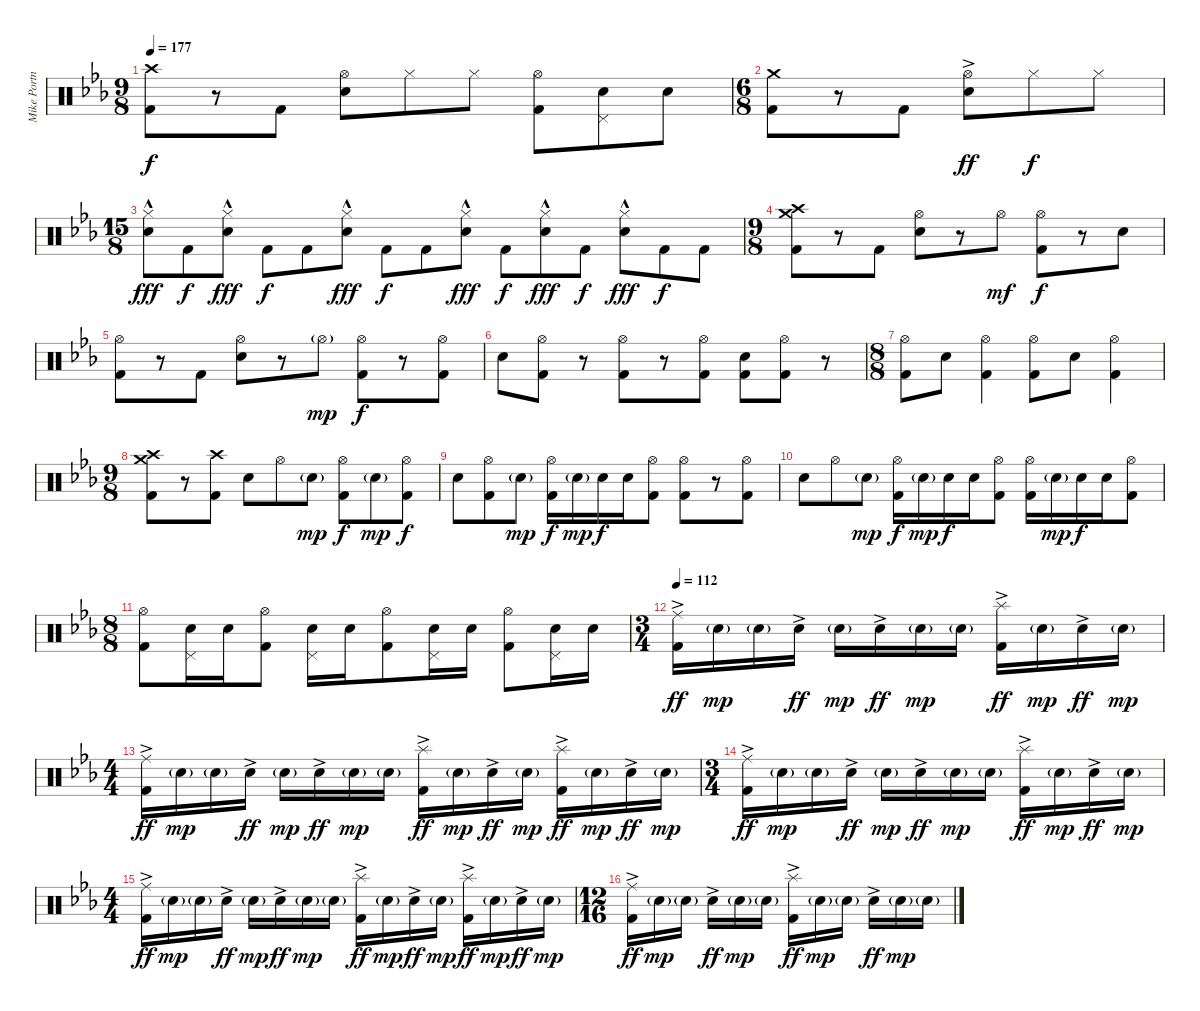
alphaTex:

\track ("Mike Portnoy" "Mike Portn") {instrument percussion}
\staff {score}
\articulation defaults
\ts (9 8)
\tempo 177
\clef neutral
\ks eb
("Crash high (hit)" "Kick (hit) 2").8{dy f} r.8 "Kick (hit) 2".8 ("Hi-Hat (open)" "Electric Snare (hit)").8 "Hi-Hat (closed)".8 "Hi-Hat (closed)".8 ("Hi-Hat (open)" "Kick (hit) 2").8 ("Pedal Hi-Hat (hit)" "Electric Snare (hit)").8 "Electric Snare (hit)".8 |
\ts (6 8)
("Crash medium (hit)" "Kick (hit) 2").8 r.8 "Kick (hit) 2".8 ("Hi-Hat (open)"{ac} "Electric Snare (hit)"{ac}).8{dy ff} "Hi-Hat (closed)".8{dy f} "Hi-Hat (closed)".8 |
\ts (15 8)
("Hi-Hat (closed)"{hac} "Electric Snare (hit)").8{dy fff} "Kick (hit) 2".8{dy f} ("Hi-Hat (closed)"{hac} "Electric Snare (hit)").8{dy fff} "Kick (hit) 2".8{dy f} "Kick (hit) 2".8 ("Hi-Hat (closed)"{hac} "Electric Snare (hit)").8{dy fff} "Kick (hit) 2".8{dy f} "Kick (hit) 2".8 ("Hi-Hat (closed)"{hac} "Electric Snare (hit)").8{dy fff} "Kick (hit) 2".8{dy f} ("Hi-Hat (closed)"{hac} "Electric Snare (hit)").8{dy fff} "Kick (hit) 2".8{dy f} ("Hi-Hat (closed)"{hac} "Electric Snare (hit)").8{dy fff} "Kick (hit) 2".8{dy f} "Kick (hit) 2".8 |
\ts (9 8)
("Crash medium (hit)" "Crash high (hit)" "Kick (hit) 2").8 r.8 "Kick (hit) 2".8 ("Hi-Hat (open)" "Electric Snare (hit)").8 r.8 "Hi-Hat (open)".8{dy mf} ("Hi-Hat (open)" "Kick (hit) 2").8{dy f} r.8 "Electric Snare (hit)".8 |
("Hi-Hat (open)" "Kick (hit) 2").8 r.8 "Kick (hit) 2".8 ("Hi-Hat (open)" "Electric Snare (hit)").8 r.8 "Hi-Hat (open)"{g}.8{dy mp} ("Hi-Hat (open)" "Kick (hit) 2").8{dy f} r.8 ("Hi-Hat (open)" "Kick (hit) 2").8 |
"Electric Snare (hit)".8 ("Hi-Hat (open)" "Kick (hit) 2").8 r.8 ("Hi-Hat (open)" "Kick (hit) 2").8 r.8 ("Hi-Hat (open)" "Kick (hit) 2").8 ("Electric Snare (hit)" "Kick (hit) 2").8 ("Hi-Hat (open)" "Kick (hit) 2").8 r.8 |
\ts (8 8)
("Hi-Hat (open)" "Kick (hit) 2").8 "Electric Snare (hit)".8 ("Hi-Hat (open)" "Kick (hit) 2").4 ("Hi-Hat (open)" "Kick (hit) 2").8 "Electric Snare (hit)".8 ("Hi-Hat (open)" "Kick (hit) 2").4 |
\ts (9 8)
("Crash medium (hit)" "Crash high (hit)" "Kick (hit) 2").8 r.8 ("Crash high (hit)" "Kick (hit) 2").8 "Electric Snare (hit)".8 "Hi-Hat (open)".8 "Electric Snare (hit)"{g}.8{dy mp} ("Hi-Hat (open)" "Kick (hit) 2").8{dy f} "Electric Snare (hit)"{g}.8{dy mp} ("Hi-Hat (open)" "Kick (hit) 2").8{dy f} |
"Electric Snare (hit)".8 ("Hi-Hat (open)" "Kick (hit) 2").8 "Electric Snare (hit)"{g}.8{dy mp} ("Hi-Hat (open)" "Kick (hit) 2").16{dy f} "Electric Snare (hit)"{g}.16{dy mp} "Electric Snare (hit)".16{dy f} "Electric Snare (hit)".16 ("Hi-Hat (open)" "Kick (hit) 2").8 ("Hi-Hat (open)" "Kick (hit) 2").8 r.8 ("Hi-Hat (open)" "Kick (hit) 2").8 |
"Electric Snare (hit)".8 "Hi-Hat (open)".8 "Electric Snare (hit)"{g}.8{dy mp} ("Hi-Hat (open)" "Kick (hit) 2").16{dy f} "Electric Snare (hit)"{g}.16{dy mp} "Electric Snare (hit)".16{dy f} "Electric Snare (hit)".16 ("Hi-Hat (open)" "Kick (hit) 2").8 ("Hi-Hat (open)" "Kick (hit) 2").16 "Electric Snare (hit)"{g}.16{dy mp} "Electric Snare (hit)".16{dy f} "Electric Snare (hit)".16 ("Hi-Hat (open)" "Kick (hit) 2").8 |
\ts (8 8)
("Hi-Hat (open)" "Kick (hit) 2").8 ("Pedal Hi-Hat (hit)" "Electric Snare (hit)").16 "Electric Snare (hit)".16 ("Hi-Hat (open)" "Kick (hit) 2").8 ("Pedal Hi-Hat (hit)" "Electric Snare (hit)").16 "Electric Snare (hit)".16 ("Hi-Hat (open)" "Kick (hit) 2").8 ("Pedal Hi-Hat (hit)" "Electric Snare (hit)").16 "Electric Snare (hit)".16 ("Hi-Hat (open)" "Kick (hit) 2").8 ("Pedal Hi-Hat (hit)" "Electric Snare (hit)").16 "Electric Snare (hit)".16 |
\ts (3 4)
\tempo 112
("Ride (middle)" "Kick (hit) 2"{ac}).16{dy ff} "Electric Snare (hit)"{g}.16{dy mp} "Electric Snare (hit)"{g}.16 "Electric Snare (hit)"{ac}.16{dy ff} "Electric Snare (hit)"{g}.16{dy mp} "Electric Snare (hit)"{ac}.16{dy ff} "Electric Snare (hit)"{g}.16{dy mp} "Electric Snare (hit)"{g}.16 ("Splash (hit)" "Kick (hit) 2"{ac}).16{dy ff} "Electric Snare (hit)"{g}.16{dy mp} "Electric Snare (hit)"{ac}.16{dy ff} "Electric Snare (hit)"{g}.16{dy mp} |
\ts (4 4)
("Ride (middle)" "Kick (hit) 2"{ac}).16{dy ff} "Electric Snare (hit)"{g}.16{dy mp} "Electric Snare (hit)"{g}.16 "Electric Snare (hit)"{ac}.16{dy ff} "Electric Snare (hit)"{g}.16{dy mp} "Electric Snare (hit)"{ac}.16{dy ff} "Electric Snare (hit)"{g}.16{dy mp} "Electric Snare (hit)"{g}.16 ("Splash (hit)" "Kick (hit) 2"{ac}).16{dy ff} "Electric Snare (hit)"{g}.16{dy mp} "Electric Snare (hit)"{ac}.16{dy ff} "Electric Snare (hit)"{g}.16{dy mp} ("Splash (hit)" "Kick (hit) 2"{ac}).16{dy ff} "Electric Snare (hit)"{g}.16{dy mp} "Electric Snare (hit)"{ac}.16{dy ff} "Electric Snare (hit)"{g}.16{dy mp} |
\ts (3 4)
("Ride (middle)" "Kick (hit) 2"{ac}).16{dy ff} "Electric Snare (hit)"{g}.16{dy mp} "Electric Snare (hit)"{g}.16 "Electric Snare (hit)"{ac}.16{dy ff} "Electric Snare (hit)"{g}.16{dy mp} "Electric Snare (hit)"{ac}.16{dy ff} "Electric Snare (hit)"{g}.16{dy mp} "Electric Snare (hit)"{g}.16 ("Splash (hit)" "Kick (hit) 2"{ac}).16{dy ff} "Electric Snare (hit)"{g}.16{dy mp} "Electric Snare (hit)"{ac}.16{dy ff} "Electric Snare (hit)"{g}.16{dy mp} |
\ts (4 4)
("Ride (middle)" "Kick (hit) 2"{ac}).16{dy ff} "Electric Snare (hit)"{g}.16{dy mp} "Electric Snare (hit)"{g}.16 "Electric Snare (hit)"{ac}.16{dy ff} "Electric Snare (hit)"{g}.16{dy mp} "Electric Snare (hit)"{ac}.16{dy ff} "Electric Snare (hit)"{g}.16{dy mp} "Electric Snare (hit)"{g}.16 ("Splash (hit)" "Kick (hit) 2"{ac}).16{dy ff} "Electric Snare (hit)"{g}.16{dy mp} "Electric Snare (hit)"{ac}.16{dy ff} "Electric Snare (hit)"{g}.16{dy mp} ("Splash (hit)" "Kick (hit) 2"{ac}).16{dy ff} "Electric Snare (hit)"{g}.16{dy mp} "Electric Snare (hit)"{ac}.16{dy ff} "Electric Snare (hit)"{g}.16{dy mp} |
\ts (12 16)
("Ride (middle)" "Kick (hit) 2"{ac}).16{dy ff} "Electric Snare (hit)"{g}.16{dy mp} "Electric Snare (hit)"{g}.16 "Electric Snare (hit)"{ac}.16{dy ff} "Electric Snare (hit)"{g}.16{dy mp} "Electric Snare (hit)"{g}.16 ("Splash (hit)" "Kick (hit) 2"{ac}).16{dy ff} "Electric Snare (hit)"{g}.16{dy mp} "Electric Snare (hit)"{g}.16 "Electric Snare (hit)"{ac}.16{dy ff} "Electric Snare (hit)"{g}.16{dy mp} "Electric Snare (hit)"{g}.16
